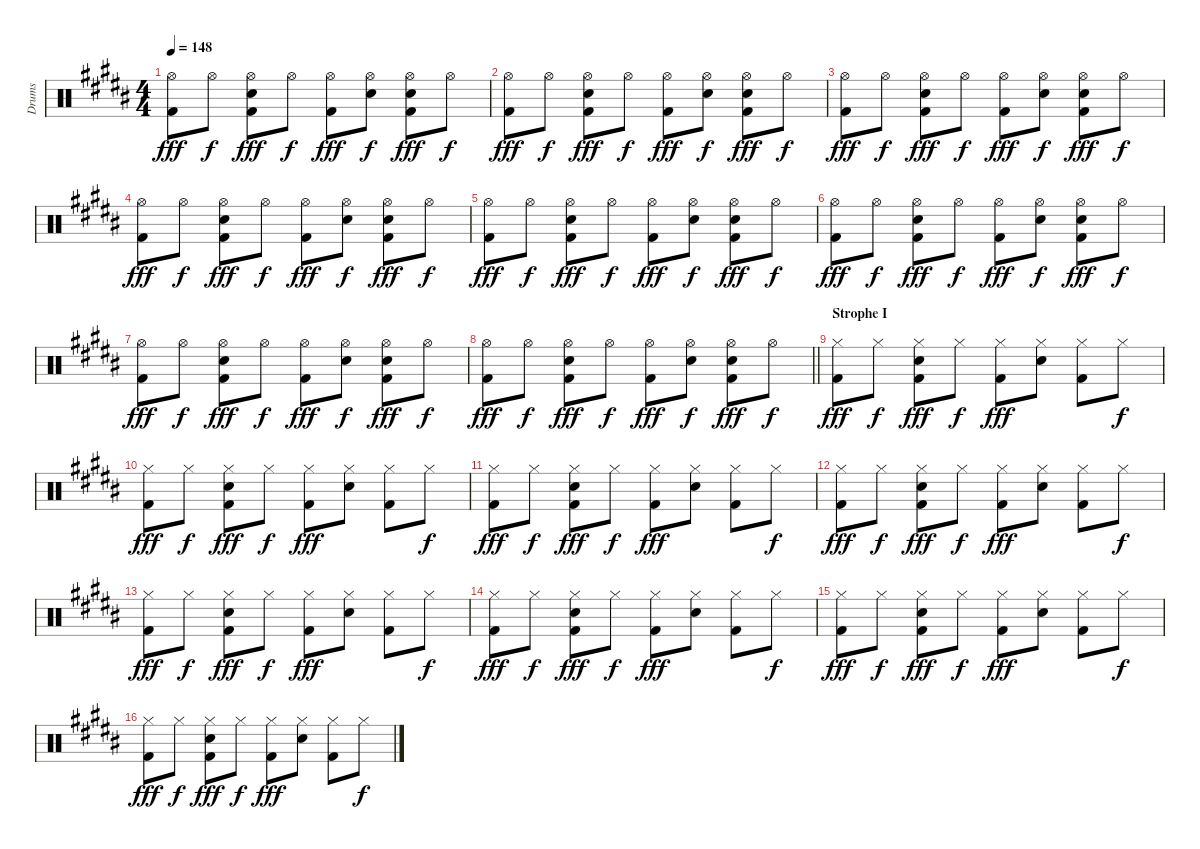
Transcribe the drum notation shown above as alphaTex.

\track ("Drums" "Drums") {instrument percussion}
\staff {score}
\articulation defaults
\ts (4 4)
\tempo 148
\clef neutral
\ks b
("Hi-Hat (open)" "Kick (hit) 2").8{dy fff} "Hi-Hat (open)".8{dy f} ("Hi-Hat (open)" "Snare (hit) 2" "Kick (hit) 2").8{dy fff} "Hi-Hat (open)".8{dy f} ("Hi-Hat (open)" "Kick (hit) 2").8{dy fff} ("Hi-Hat (open)" "Electric Snare (hit)").8{dy f} ("Hi-Hat (open)" "Snare (hit) 2" "Kick (hit) 2").8{dy fff} "Hi-Hat (open)".8{dy f} |
("Hi-Hat (open)" "Kick (hit) 2").8{dy fff} "Hi-Hat (open)".8{dy f} ("Hi-Hat (open)" "Snare (hit) 2" "Kick (hit) 2").8{dy fff} "Hi-Hat (open)".8{dy f} ("Hi-Hat (open)" "Kick (hit) 2").8{dy fff} ("Hi-Hat (open)" "Electric Snare (hit)").8{dy f} ("Hi-Hat (open)" "Snare (hit) 2" "Kick (hit) 2").8{dy fff} "Hi-Hat (open)".8{dy f} |
("Hi-Hat (open)" "Kick (hit) 2").8{dy fff} "Hi-Hat (open)".8{dy f} ("Hi-Hat (open)" "Snare (hit) 2" "Kick (hit) 2").8{dy fff} "Hi-Hat (open)".8{dy f} ("Hi-Hat (open)" "Kick (hit) 2").8{dy fff} ("Hi-Hat (open)" "Electric Snare (hit)").8{dy f} ("Hi-Hat (open)" "Snare (hit) 2" "Kick (hit) 2").8{dy fff} "Hi-Hat (open)".8{dy f} |
("Hi-Hat (open)" "Kick (hit) 2").8{dy fff} "Hi-Hat (open)".8{dy f} ("Hi-Hat (open)" "Snare (hit) 2" "Kick (hit) 2").8{dy fff} "Hi-Hat (open)".8{dy f} ("Hi-Hat (open)" "Kick (hit) 2").8{dy fff} ("Hi-Hat (open)" "Electric Snare (hit)").8{dy f} ("Hi-Hat (open)" "Snare (hit) 2" "Kick (hit) 2").8{dy fff} "Hi-Hat (open)".8{dy f} |
("Hi-Hat (open)" "Kick (hit) 2").8{dy fff} "Hi-Hat (open)".8{dy f} ("Hi-Hat (open)" "Snare (hit) 2" "Kick (hit) 2").8{dy fff} "Hi-Hat (open)".8{dy f} ("Hi-Hat (open)" "Kick (hit) 2").8{dy fff} ("Hi-Hat (open)" "Electric Snare (hit)").8{dy f} ("Hi-Hat (open)" "Snare (hit) 2" "Kick (hit) 2").8{dy fff} "Hi-Hat (open)".8{dy f} |
("Hi-Hat (open)" "Kick (hit) 2").8{dy fff} "Hi-Hat (open)".8{dy f} ("Hi-Hat (open)" "Snare (hit) 2" "Kick (hit) 2").8{dy fff} "Hi-Hat (open)".8{dy f} ("Hi-Hat (open)" "Kick (hit) 2").8{dy fff} ("Hi-Hat (open)" "Electric Snare (hit)").8{dy f} ("Hi-Hat (open)" "Snare (hit) 2" "Kick (hit) 2").8{dy fff} "Hi-Hat (open)".8{dy f} |
("Hi-Hat (open)" "Kick (hit) 2").8{dy fff} "Hi-Hat (open)".8{dy f} ("Hi-Hat (open)" "Snare (hit) 2" "Kick (hit) 2").8{dy fff} "Hi-Hat (open)".8{dy f} ("Hi-Hat (open)" "Kick (hit) 2").8{dy fff} ("Hi-Hat (open)" "Electric Snare (hit)").8{dy f} ("Hi-Hat (open)" "Snare (hit) 2" "Kick (hit) 2").8{dy fff} "Hi-Hat (open)".8{dy f} |
\barLineRight lightlight
("Hi-Hat (open)" "Kick (hit) 2").8{dy fff} "Hi-Hat (open)".8{dy f} ("Hi-Hat (open)" "Snare (hit) 2" "Kick (hit) 2").8{dy fff} "Hi-Hat (open)".8{dy f} ("Hi-Hat (open)" "Kick (hit) 2").8{dy fff} ("Hi-Hat (open)" "Electric Snare (hit)").8{dy f} ("Hi-Hat (open)" "Snare (hit) 2" "Kick (hit) 2").8{dy fff} "Hi-Hat (open)".8{dy f} |
\section ("" "Strophe I")
("Hi-Hat (closed)" "Kick (hit) 2").8{dy fff} "Hi-Hat (closed)".8{dy f} ("Hi-Hat (closed)" "Electric Snare (hit)" "Kick (hit) 2").8{dy fff} "Hi-Hat (closed)".8{dy f} ("Hi-Hat (closed)" "Kick (hit) 2").8{dy fff} ("Hi-Hat (closed)" "Electric Snare (hit)").8 ("Hi-Hat (closed)" "Kick (hit) 2").8 "Hi-Hat (closed)".8{dy f} |
("Hi-Hat (closed)" "Kick (hit) 2").8{dy fff} "Hi-Hat (closed)".8{dy f} ("Hi-Hat (closed)" "Electric Snare (hit)" "Kick (hit) 2").8{dy fff} "Hi-Hat (closed)".8{dy f} ("Hi-Hat (closed)" "Kick (hit) 2").8{dy fff} ("Hi-Hat (closed)" "Electric Snare (hit)").8 ("Hi-Hat (closed)" "Kick (hit) 2").8 "Hi-Hat (closed)".8{dy f} |
("Hi-Hat (closed)" "Kick (hit) 2").8{dy fff} "Hi-Hat (closed)".8{dy f} ("Hi-Hat (closed)" "Electric Snare (hit)" "Kick (hit) 2").8{dy fff} "Hi-Hat (closed)".8{dy f} ("Hi-Hat (closed)" "Kick (hit) 2").8{dy fff} ("Hi-Hat (closed)" "Electric Snare (hit)").8 ("Hi-Hat (closed)" "Kick (hit) 2").8 "Hi-Hat (closed)".8{dy f} |
("Hi-Hat (closed)" "Kick (hit) 2").8{dy fff} "Hi-Hat (closed)".8{dy f} ("Hi-Hat (closed)" "Electric Snare (hit)" "Kick (hit) 2").8{dy fff} "Hi-Hat (closed)".8{dy f} ("Hi-Hat (closed)" "Kick (hit) 2").8{dy fff} ("Hi-Hat (closed)" "Electric Snare (hit)").8 ("Hi-Hat (closed)" "Kick (hit) 2").8 "Hi-Hat (closed)".8{dy f} |
("Hi-Hat (closed)" "Kick (hit) 2").8{dy fff} "Hi-Hat (closed)".8{dy f} ("Hi-Hat (closed)" "Electric Snare (hit)" "Kick (hit) 2").8{dy fff} "Hi-Hat (closed)".8{dy f} ("Hi-Hat (closed)" "Kick (hit) 2").8{dy fff} ("Hi-Hat (closed)" "Electric Snare (hit)").8 ("Hi-Hat (closed)" "Kick (hit) 2").8 "Hi-Hat (closed)".8{dy f} |
("Hi-Hat (closed)" "Kick (hit) 2").8{dy fff} "Hi-Hat (closed)".8{dy f} ("Hi-Hat (closed)" "Electric Snare (hit)" "Kick (hit) 2").8{dy fff} "Hi-Hat (closed)".8{dy f} ("Hi-Hat (closed)" "Kick (hit) 2").8{dy fff} ("Hi-Hat (closed)" "Electric Snare (hit)").8 ("Hi-Hat (closed)" "Kick (hit) 2").8 "Hi-Hat (closed)".8{dy f} |
("Hi-Hat (closed)" "Kick (hit) 2").8{dy fff} "Hi-Hat (closed)".8{dy f} ("Hi-Hat (closed)" "Electric Snare (hit)" "Kick (hit) 2").8{dy fff} "Hi-Hat (closed)".8{dy f} ("Hi-Hat (closed)" "Kick (hit) 2").8{dy fff} ("Hi-Hat (closed)" "Electric Snare (hit)").8 ("Hi-Hat (closed)" "Kick (hit) 2").8 "Hi-Hat (closed)".8{dy f} |
("Hi-Hat (closed)" "Kick (hit) 2").8{dy fff} "Hi-Hat (closed)".8{dy f} ("Hi-Hat (closed)" "Electric Snare (hit)" "Kick (hit) 2").8{dy fff} "Hi-Hat (closed)".8{dy f} ("Hi-Hat (closed)" "Kick (hit) 2").8{dy fff} ("Hi-Hat (closed)" "Electric Snare (hit)").8 ("Hi-Hat (closed)" "Kick (hit) 2").8 "Hi-Hat (closed)".8{dy f}
